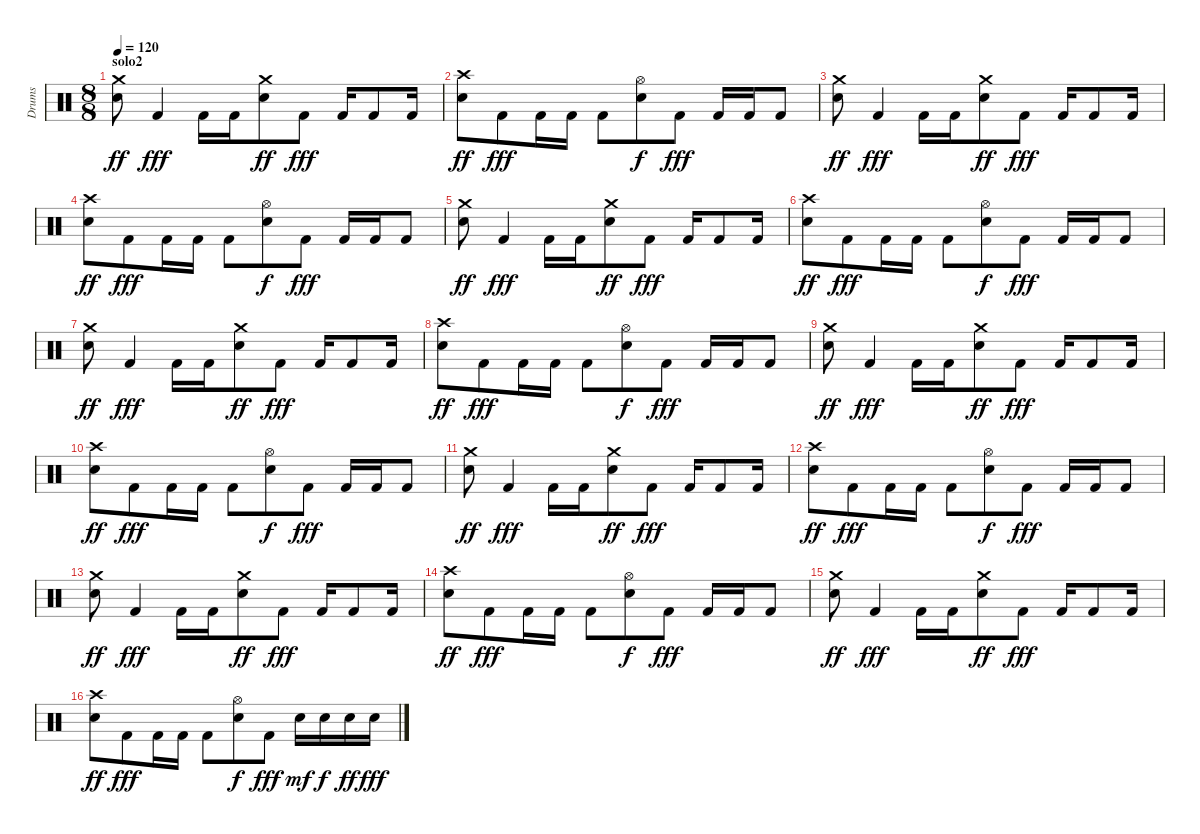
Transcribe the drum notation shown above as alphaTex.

\track ("Drums" "Drums") {instrument percussion}
\staff {score}
\articulation defaults
\ts (8 8)
\section ("" "solo2")
\tempo 120
\clef neutral
\ks c
("Crash medium (hit)" "Electric Snare (hit)").8{dy ff} "Kick (hit) 2".4{dy fff} "Kick (hit) 2".16 "Kick (hit) 2".16 ("Crash medium (hit)" "Electric Snare (hit)").8{dy ff} "Kick (hit) 2".8{dy fff} "Kick (hit) 2".16 "Kick (hit) 2".8 "Kick (hit) 2".16 |
("Crash high (hit)" "Electric Snare (hit)").8{dy ff} "Kick (hit) 2".8{dy fff} "Kick (hit) 2".16 "Kick (hit) 2".16 "Kick (hit) 2".8 ("Hi-Hat (open)" "Electric Snare (hit)").8{dy f} "Kick (hit) 2".8{dy fff} "Kick (hit) 2".16 "Kick (hit) 2".16 "Kick (hit) 2".8 |
("Crash medium (hit)" "Electric Snare (hit)").8{dy ff} "Kick (hit) 2".4{dy fff} "Kick (hit) 2".16 "Kick (hit) 2".16 ("Crash medium (hit)" "Electric Snare (hit)").8{dy ff} "Kick (hit) 2".8{dy fff} "Kick (hit) 2".16 "Kick (hit) 2".8 "Kick (hit) 2".16 |
("Crash high (hit)" "Electric Snare (hit)").8{dy ff} "Kick (hit) 2".8{dy fff} "Kick (hit) 2".16 "Kick (hit) 2".16 "Kick (hit) 2".8 ("Hi-Hat (open)" "Electric Snare (hit)").8{dy f} "Kick (hit) 2".8{dy fff} "Kick (hit) 2".16 "Kick (hit) 2".16 "Kick (hit) 2".8 |
("Crash medium (hit)" "Electric Snare (hit)").8{dy ff} "Kick (hit) 2".4{dy fff} "Kick (hit) 2".16 "Kick (hit) 2".16 ("Crash medium (hit)" "Electric Snare (hit)").8{dy ff} "Kick (hit) 2".8{dy fff} "Kick (hit) 2".16 "Kick (hit) 2".8 "Kick (hit) 2".16 |
("Crash high (hit)" "Electric Snare (hit)").8{dy ff} "Kick (hit) 2".8{dy fff} "Kick (hit) 2".16 "Kick (hit) 2".16 "Kick (hit) 2".8 ("Hi-Hat (open)" "Electric Snare (hit)").8{dy f} "Kick (hit) 2".8{dy fff} "Kick (hit) 2".16 "Kick (hit) 2".16 "Kick (hit) 2".8 |
("Crash medium (hit)" "Electric Snare (hit)").8{dy ff} "Kick (hit) 2".4{dy fff} "Kick (hit) 2".16 "Kick (hit) 2".16 ("Crash medium (hit)" "Electric Snare (hit)").8{dy ff} "Kick (hit) 2".8{dy fff} "Kick (hit) 2".16 "Kick (hit) 2".8 "Kick (hit) 2".16 |
("Crash high (hit)" "Electric Snare (hit)").8{dy ff} "Kick (hit) 2".8{dy fff} "Kick (hit) 2".16 "Kick (hit) 2".16 "Kick (hit) 2".8 ("Hi-Hat (open)" "Electric Snare (hit)").8{dy f} "Kick (hit) 2".8{dy fff} "Kick (hit) 2".16 "Kick (hit) 2".16 "Kick (hit) 2".8 |
("Crash medium (hit)" "Electric Snare (hit)").8{dy ff} "Kick (hit) 2".4{dy fff} "Kick (hit) 2".16 "Kick (hit) 2".16 ("Crash medium (hit)" "Electric Snare (hit)").8{dy ff} "Kick (hit) 2".8{dy fff} "Kick (hit) 2".16 "Kick (hit) 2".8 "Kick (hit) 2".16 |
("Crash high (hit)" "Electric Snare (hit)").8{dy ff} "Kick (hit) 2".8{dy fff} "Kick (hit) 2".16 "Kick (hit) 2".16 "Kick (hit) 2".8 ("Hi-Hat (open)" "Electric Snare (hit)").8{dy f} "Kick (hit) 2".8{dy fff} "Kick (hit) 2".16 "Kick (hit) 2".16 "Kick (hit) 2".8 |
("Crash medium (hit)" "Electric Snare (hit)").8{dy ff} "Kick (hit) 2".4{dy fff} "Kick (hit) 2".16 "Kick (hit) 2".16 ("Crash medium (hit)" "Electric Snare (hit)").8{dy ff} "Kick (hit) 2".8{dy fff} "Kick (hit) 2".16 "Kick (hit) 2".8 "Kick (hit) 2".16 |
("Crash high (hit)" "Electric Snare (hit)").8{dy ff} "Kick (hit) 2".8{dy fff} "Kick (hit) 2".16 "Kick (hit) 2".16 "Kick (hit) 2".8 ("Hi-Hat (open)" "Electric Snare (hit)").8{dy f} "Kick (hit) 2".8{dy fff} "Kick (hit) 2".16 "Kick (hit) 2".16 "Kick (hit) 2".8 |
("Crash medium (hit)" "Electric Snare (hit)").8{dy ff} "Kick (hit) 2".4{dy fff} "Kick (hit) 2".16 "Kick (hit) 2".16 ("Crash medium (hit)" "Electric Snare (hit)").8{dy ff} "Kick (hit) 2".8{dy fff} "Kick (hit) 2".16 "Kick (hit) 2".8 "Kick (hit) 2".16 |
("Crash high (hit)" "Electric Snare (hit)").8{dy ff} "Kick (hit) 2".8{dy fff} "Kick (hit) 2".16 "Kick (hit) 2".16 "Kick (hit) 2".8 ("Hi-Hat (open)" "Electric Snare (hit)").8{dy f} "Kick (hit) 2".8{dy fff} "Kick (hit) 2".16 "Kick (hit) 2".16 "Kick (hit) 2".8 |
("Crash medium (hit)" "Electric Snare (hit)").8{dy ff} "Kick (hit) 2".4{dy fff} "Kick (hit) 2".16 "Kick (hit) 2".16 ("Crash medium (hit)" "Electric Snare (hit)").8{dy ff} "Kick (hit) 2".8{dy fff} "Kick (hit) 2".16 "Kick (hit) 2".8 "Kick (hit) 2".16 |
("Crash high (hit)" "Electric Snare (hit)").8{dy ff} "Kick (hit) 2".8{dy fff} "Kick (hit) 2".16 "Kick (hit) 2".16 "Kick (hit) 2".8 ("Hi-Hat (open)" "Electric Snare (hit)").8{dy f} "Kick (hit) 2".8{dy fff} "Electric Snare (hit)".16{dy mf} "Electric Snare (hit)".16{dy f} "Electric Snare (hit)".16{dy ff} "Electric Snare (hit)".16{dy fff}
